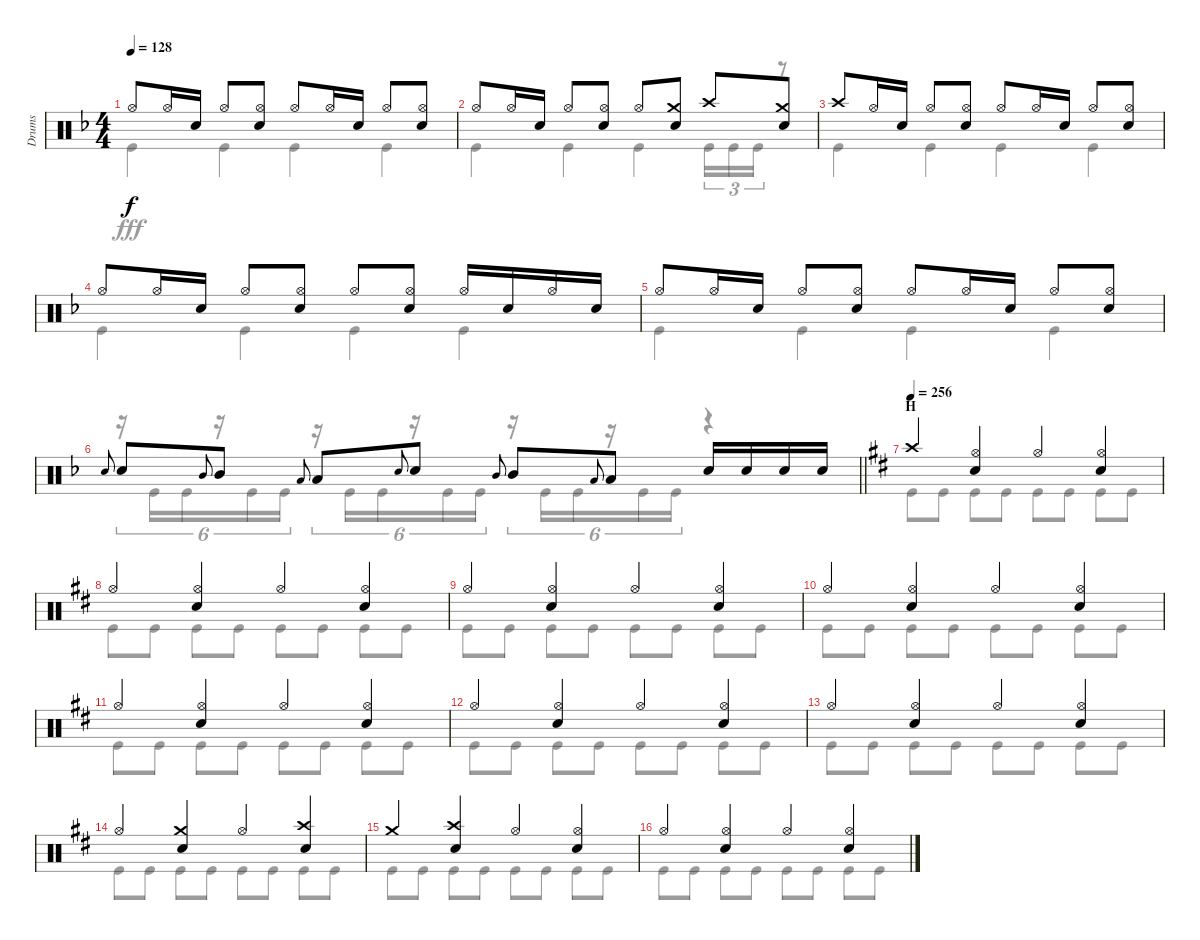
\track ("Drums" "Drums") {instrument percussion}
\staff {score}
\articulation defaults
\voice
\ts (4 4)
\tempo 128
\clef neutral
\ks f "Hi-Hat (open)".8{dy f} "Hi-Hat (open)".16 "Snare (hit) 2".16 "Hi-Hat (open)".8
("Hi-Hat (open)" "Snare (hit) 2").8 "Hi-Hat (open)".8 "Hi-Hat (open)".16 "Snare (hit) 2".16 "Hi-Hat (open)".8 ("Hi-Hat (open)" "Snare (hit) 2").8 |
"Hi-Hat (open)".8 "Hi-Hat (open)".16 "Snare (hit) 2".16 "Hi-Hat (open)".8 ("Hi-Hat (open)" "Snare (hit) 2").8 "Hi-Hat (open)".8 ("Crash medium (hit)" "Snare (hit) 2").8 "Crash high (hit)".8 ("Crash medium (hit)" "Snare (hit) 2").8 |
"Crash high (hit)".8 "Hi-Hat (open)".16 "Snare (hit) 2".16 "Hi-Hat (open)".8 ("Hi-Hat (open)" "Snare (hit) 2").8 "Hi-Hat (open)".8 "Hi-Hat (open)".16 "Snare (hit) 2".16 "Hi-Hat (open)".8 ("Hi-Hat (open)" "Snare (hit) 2").8 |
"Hi-Hat (open)".8 "Hi-Hat (open)".16 "Snare (hit) 2".16 "Hi-Hat (open)".8 ("Hi-Hat (open)" "Snare (hit) 2").8 "Hi-Hat (open)".8 ("Hi-Hat (open)" "Snare (hit) 2").8 "Hi-Hat (open)".16 "Snare (hit) 2".16 "Hi-Hat (open)".16 "Snare (hit) 2".16 |
"Hi-Hat (open)".8 "Hi-Hat (open)".16 "Snare (hit) 2".16 "Hi-Hat (open)".8 ("Hi-Hat (open)" "Snare (hit) 2").8 "Hi-Hat (open)".8 "Hi-Hat (open)".16 "Snare (hit) 2".16 "Hi-Hat (open)".8 ("Hi-Hat (open)" "Snare (hit) 2").8 |
\barLineRight lightlight "Snare (hit) 2".8{gr onbeat} "Snare (hit) 2".8 "Mid Tom (hit)".8{gr onbeat} "Mid Tom (hit)".8 "Low Tom (hit)".8{gr onbeat} "Low Tom (hit)".8 "Snare (hit) 2".8{gr onbeat} "Snare (hit) 2".8 "Mid Tom (hit)".8{gr onbeat} "Mid Tom (hit)".8 "Low Tom (hit)".8{gr onbeat} "Low Tom (hit)".8 "Snare (hit) 2".16 "Snare (hit) 2".16 "Snare (hit) 2".16 "Snare (hit) 2".16
|
\section ("" "H")
\tempo 256
\ks d "Crash high (hit)".4
("Hi-Hat (open)" "Snare (hit) 2").4 "Hi-Hat (open)".4 ("Hi-Hat (open)" "Snare (hit) 2").4 |
"Hi-Hat (open)".4 ("Hi-Hat (open)" "Snare (hit) 2").4 "Hi-Hat (open)".4 ("Hi-Hat (open)" "Snare (hit) 2").4 |
"Hi-Hat (open)".4 ("Hi-Hat (open)" "Snare (hit) 2").4 "Hi-Hat (open)".4 ("Hi-Hat (open)" "Snare (hit) 2").4 |
"Hi-Hat (open)".4 ("Hi-Hat (open)" "Snare (hit) 2").4 "Hi-Hat (open)".4 ("Hi-Hat (open)" "Snare (hit) 2").4 |
"Hi-Hat (open)".4 ("Hi-Hat (open)" "Snare (hit) 2").4 "Hi-Hat (open)".4 ("Hi-Hat (open)" "Snare (hit) 2").4 |
"Hi-Hat (open)".4 ("Hi-Hat (open)" "Snare (hit) 2").4 "Hi-Hat (open)".4 ("Hi-Hat (open)" "Snare (hit) 2").4 |
"Hi-Hat (open)".4 ("Hi-Hat (open)" "Snare (hit) 2").4 "Hi-Hat (open)".4 ("Hi-Hat (open)" "Snare (hit) 2").4 |
"Hi-Hat (open)".4 ("Crash medium (hit)" "Snare (hit) 2").4 "Hi-Hat (open)".4 ("Crash high (hit)" "Snare (hit) 2").4 |
"Crash medium (hit)".4 ("Crash high (hit)" "Snare (hit) 2").4 "Hi-Hat (open)".4 ("Hi-Hat (open)" "Snare (hit) 2").4 |
"Hi-Hat (open)".4 ("Hi-Hat (open)" "Snare (hit) 2").4 "Hi-Hat (open)".4 ("Hi-Hat (open)" "Snare (hit) 2").4
\voice
\clef neutral
\ottava regular
\simile none
\ks f "Kick (hit)".4{dy fff} "Kick (hit)".4 "Kick (hit)".4 "Kick (hit)".4
|
"Kick (hit)".4 "Kick (hit)".4 "Kick (hit)".4 "Kick (hit)".16{tu (3 2)} "Kick (hit)".16{tu (3 2)} "Kick (hit)".16{tu (3 2)} r.8 |
"Kick (hit)".4 "Kick (hit)".4 "Kick (hit)".4 "Kick (hit)".4 |
"Kick (hit)".4 "Kick (hit)".4 "Kick (hit)".4 "Kick (hit)".4 |
"Kick (hit)".4 "Kick (hit)".4 "Kick (hit)".4 "Kick (hit)".4 |
\barLineRight lightlight
r.16{tu (6 4)} "Kick (hit)".16{tu (6 4)} "Kick (hit)".16{tu (6 4)} r.16{tu (6 4)} "Kick (hit)".16{tu (6 4)} "Kick (hit)".16{tu (6 4)} r.16{tu (6 4)} "Kick (hit)".16{tu (6 4)} "Kick (hit)".16{tu (6 4)} r.16{tu (6 4)} "Kick (hit)".16{tu (6 4)} "Kick (hit)".16{tu (6 4)} r.16{tu (6 4)} "Kick (hit)".16{tu (6 4)} "Kick (hit)".16{tu (6 4)} r.16{tu (6 4)} "Kick (hit)".16{tu (6 4)} "Kick (hit)".16{tu (6 4)} r.4 |
\ks d "Kick (hit)".8 "Kick (hit)".8 "Kick (hit)".8 "Kick (hit)".8 "Kick (hit)".8 "Kick (hit)".8 "Kick (hit)".8 "Kick (hit)".8
|
"Kick (hit)".8 "Kick (hit)".8 "Kick (hit)".8 "Kick (hit)".8 "Kick (hit)".8 "Kick (hit)".8 "Kick (hit)".8 "Kick (hit)".8 |
"Kick (hit)".8 "Kick (hit)".8 "Kick (hit)".8 "Kick (hit)".8 "Kick (hit)".8 "Kick (hit)".8 "Kick (hit)".8 "Kick (hit)".8 |
"Kick (hit)".8 "Kick (hit)".8 "Kick (hit)".8 "Kick (hit)".8 "Kick (hit)".8 "Kick (hit)".8 "Kick (hit)".8 "Kick (hit)".8 |
"Kick (hit)".8 "Kick (hit)".8 "Kick (hit)".8 "Kick (hit)".8 "Kick (hit)".8 "Kick (hit)".8 "Kick (hit)".8 "Kick (hit)".8 |
"Kick (hit)".8 "Kick (hit)".8 "Kick (hit)".8 "Kick (hit)".8 "Kick (hit)".8 "Kick (hit)".8 "Kick (hit)".8 "Kick (hit)".8 |
"Kick (hit)".8 "Kick (hit)".8 "Kick (hit)".8 "Kick (hit)".8 "Kick (hit)".8 "Kick (hit)".8 "Kick (hit)".8 "Kick (hit)".8 |
"Kick (hit)".8 "Kick (hit)".8 "Kick (hit)".8 "Kick (hit)".8 "Kick (hit)".8 "Kick (hit)".8 "Kick (hit)".8 "Kick (hit)".8 |
"Kick (hit)".8 "Kick (hit)".8 "Kick (hit)".8 "Kick (hit)".8 "Kick (hit)".8 "Kick (hit)".8 "Kick (hit)".8 "Kick (hit)".8 |
"Kick (hit)".8 "Kick (hit)".8 "Kick (hit)".8 "Kick (hit)".8 "Kick (hit)".8 "Kick (hit)".8 "Kick (hit)".8 "Kick (hit)".8
